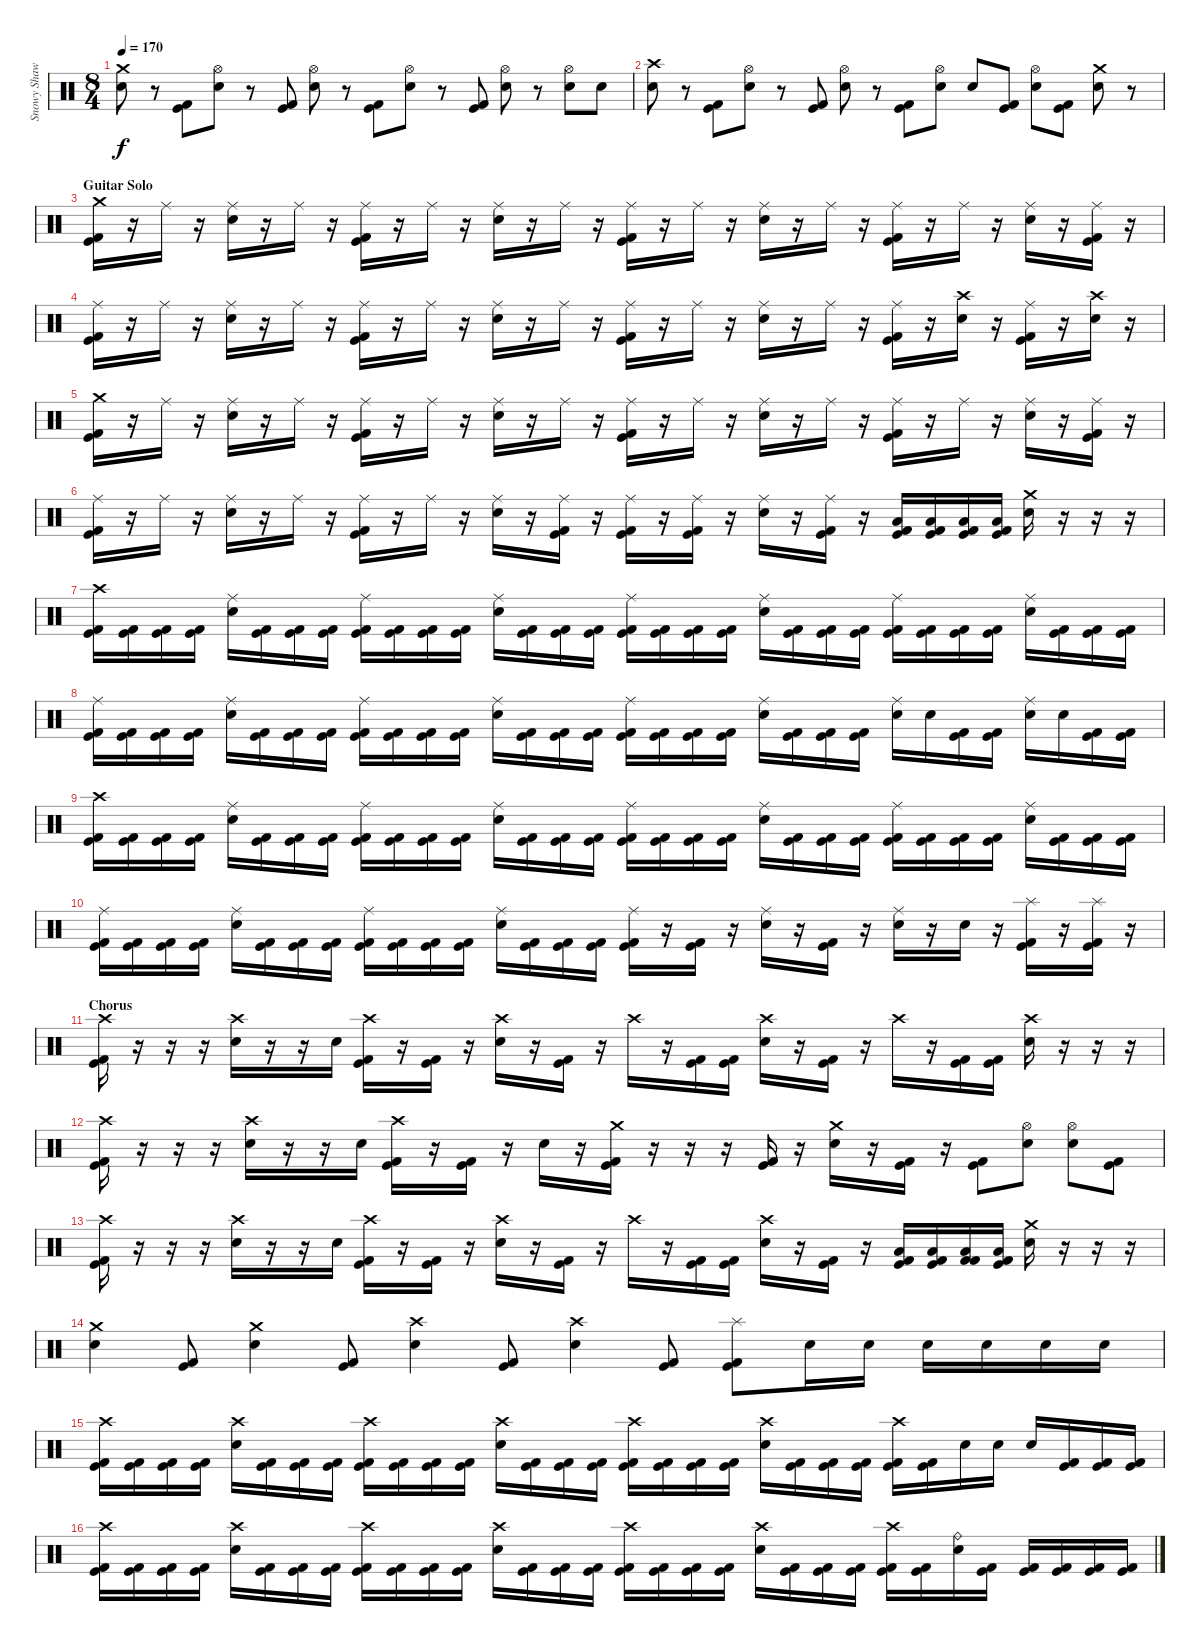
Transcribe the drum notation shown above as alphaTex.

\track ("Snowy Shaw" "Snowy Shaw") {instrument percussion}
\staff {score}
\articulation defaults
\ts (8 4)
\tempo 170
\clef neutral
\ks c
("Crash medium (hit)" "Electric Snare (hit)").8{dy f} r.8 ("Kick (hit)" "Kick (hit) 2").8 ("Hi-Hat (open)" "Electric Snare (hit)").8 r.8 ("Kick (hit)" "Kick (hit) 2").8 ("Hi-Hat (open)" "Electric Snare (hit)").8 r.8 ("Kick (hit)" "Kick (hit) 2").8 ("Hi-Hat (open)" "Electric Snare (hit)").8 r.8 ("Kick (hit)" "Kick (hit) 2").8 ("Hi-Hat (open)" "Electric Snare (hit)").8 r.8 ("Hi-Hat (open)" "Electric Snare (hit)").8 "Electric Snare (hit)".8 |
("Crash high (hit)" "Electric Snare (hit)").8 r.8 ("Kick (hit)" "Kick (hit) 2").8 ("Hi-Hat (open)" "Electric Snare (hit)").8 r.8 ("Kick (hit)" "Kick (hit) 2").8 ("Hi-Hat (open)" "Electric Snare (hit)").8 r.8 ("Kick (hit)" "Kick (hit) 2").8 ("Hi-Hat (open)" "Electric Snare (hit)").8 "Electric Snare (hit)".8 ("Kick (hit)" "Kick (hit) 2").8 ("Hi-Hat (open)" "Electric Snare (hit)").8 ("Kick (hit)" "Kick (hit) 2").8 ("Crash medium (hit)" "Electric Snare (hit)").8 r.8 |
\section ("" "Guitar Solo")
("Crash medium (hit)" "Kick (hit)" "Kick (hit) 2").16 r.16 "Ride (middle)".16 r.16 ("Ride (middle)" "Electric Snare (hit)").16 r.16 "Ride (middle)".16 r.16 ("Ride (middle)" "Kick (hit)" "Kick (hit) 2").16 r.16 "Ride (middle)".16 r.16 ("Ride (middle)" "Electric Snare (hit)").16 r.16 "Ride (middle)".16 r.16 ("Ride (middle)" "Kick (hit)" "Kick (hit) 2").16 r.16 "Ride (middle)".16 r.16 ("Ride (middle)" "Electric Snare (hit)").16 r.16 "Ride (middle)".16 r.16 ("Ride (middle)" "Kick (hit)" "Kick (hit) 2").16 r.16 "Ride (middle)".16 r.16 ("Ride (middle)" "Electric Snare (hit)").16 r.16 ("Ride (middle)" "Kick (hit)" "Kick (hit) 2").16 r.16 |
("Ride (middle)" "Kick (hit)" "Kick (hit) 2").16 r.16 "Ride (middle)".16 r.16 ("Ride (middle)" "Electric Snare (hit)").16 r.16 "Ride (middle)".16 r.16 ("Ride (middle)" "Kick (hit)" "Kick (hit) 2").16 r.16 "Ride (middle)".16 r.16 ("Ride (middle)" "Electric Snare (hit)").16 r.16 "Ride (middle)".16 r.16 ("Ride (middle)" "Kick (hit)" "Kick (hit) 2").16 r.16 "Ride (middle)".16 r.16 ("Ride (middle)" "Electric Snare (hit)").16 r.16 "Ride (middle)".16 r.16 ("Ride (middle)" "Kick (hit)" "Kick (hit) 2").16 r.16 ("Crash high (hit)" "Electric Snare (hit)").16 r.16 ("Ride (middle)" "Kick (hit)" "Kick (hit) 2").16 r.16 ("Crash high (hit)" "Electric Snare (hit)").16 r.16 |
("Crash medium (hit)" "Kick (hit)" "Kick (hit) 2").16 r.16 "Ride (middle)".16 r.16 ("Ride (middle)" "Electric Snare (hit)").16 r.16 "Ride (middle)".16 r.16 ("Ride (middle)" "Kick (hit)" "Kick (hit) 2").16 r.16 "Ride (middle)".16 r.16 ("Ride (middle)" "Electric Snare (hit)").16 r.16 "Ride (middle)".16 r.16 ("Ride (middle)" "Kick (hit)" "Kick (hit) 2").16 r.16 "Ride (middle)".16 r.16 ("Ride (middle)" "Electric Snare (hit)").16 r.16 "Ride (middle)".16 r.16 ("Ride (middle)" "Kick (hit)" "Kick (hit) 2").16 r.16 "Ride (middle)".16 r.16 ("Ride (middle)" "Electric Snare (hit)").16 r.16 ("Ride (middle)" "Kick (hit)" "Kick (hit) 2").16 r.16 |
("Ride (middle)" "Kick (hit)" "Kick (hit) 2").16 r.16 "Ride (middle)".16 r.16 ("Ride (middle)" "Electric Snare (hit)").16 r.16 "Ride (middle)".16 r.16 ("Ride (middle)" "Kick (hit)" "Kick (hit) 2").16 r.16 "Ride (middle)".16 r.16 ("Ride (middle)" "Electric Snare (hit)").16 r.16 ("Ride (middle)" "Kick (hit)" "Kick (hit) 2").16 r.16 ("Ride (middle)" "Kick (hit)" "Kick (hit) 2").16 r.16 ("Ride (middle)" "Kick (hit)" "Kick (hit) 2").16 r.16 ("Ride (middle)" "Electric Snare (hit)").16 r.16 ("Ride (middle)" "Kick (hit)" "Kick (hit) 2").16 r.16 ("Low Tom (hit)" "Kick (hit)" "Kick (hit) 2").16 ("Low Tom (hit)" "Kick (hit)" "Kick (hit) 2").16 ("Low Tom (hit)" "Kick (hit)" "Kick (hit) 2").16 ("Low Tom (hit)" "Kick (hit)" "Kick (hit) 2").16 ("Crash medium (hit)" "Electric Snare (hit)").16 r.16 r.16 r.16 |
("Crash high (hit)" "Kick (hit)" "Kick (hit) 2").16 ("Kick (hit)" "Kick (hit) 2").16 ("Kick (hit)" "Kick (hit) 2").16 ("Kick (hit)" "Kick (hit) 2").16 ("Ride (middle)" "Electric Snare (hit)").16 ("Kick (hit)" "Kick (hit) 2").16 ("Kick (hit)" "Kick (hit) 2").16 ("Kick (hit)" "Kick (hit) 2").16 ("Ride (middle)" "Kick (hit)" "Kick (hit) 2").16 ("Kick (hit)" "Kick (hit) 2").16 ("Kick (hit)" "Kick (hit) 2").16 ("Kick (hit)" "Kick (hit) 2").16 ("Ride (middle)" "Electric Snare (hit)").16 ("Kick (hit)" "Kick (hit) 2").16 ("Kick (hit)" "Kick (hit) 2").16 ("Kick (hit)" "Kick (hit) 2").16 ("Ride (middle)" "Kick (hit)" "Kick (hit) 2").16 ("Kick (hit)" "Kick (hit) 2").16 ("Kick (hit)" "Kick (hit) 2").16 ("Kick (hit)" "Kick (hit) 2").16 ("Ride (middle)" "Electric Snare (hit)").16 ("Kick (hit)" "Kick (hit) 2").16 ("Kick (hit)" "Kick (hit) 2").16 ("Kick (hit)" "Kick (hit) 2").16 ("Ride (middle)" "Kick (hit)" "Kick (hit) 2").16 ("Kick (hit)" "Kick (hit) 2").16 ("Kick (hit)" "Kick (hit) 2").16 ("Kick (hit)" "Kick (hit) 2").16 ("Ride (middle)" "Electric Snare (hit)").16 ("Kick (hit)" "Kick (hit) 2").16 ("Kick (hit)" "Kick (hit) 2").16 ("Kick (hit)" "Kick (hit) 2").16 |
("Ride (middle)" "Kick (hit)" "Kick (hit) 2").16 ("Kick (hit)" "Kick (hit) 2").16 ("Kick (hit)" "Kick (hit) 2").16 ("Kick (hit)" "Kick (hit) 2").16 ("Ride (middle)" "Electric Snare (hit)").16 ("Kick (hit)" "Kick (hit) 2").16 ("Kick (hit)" "Kick (hit) 2").16 ("Kick (hit)" "Kick (hit) 2").16 ("Ride (middle)" "Kick (hit)" "Kick (hit) 2").16 ("Kick (hit)" "Kick (hit) 2").16 ("Kick (hit)" "Kick (hit) 2").16 ("Kick (hit)" "Kick (hit) 2").16 ("Ride (middle)" "Electric Snare (hit)").16 ("Kick (hit)" "Kick (hit) 2").16 ("Kick (hit)" "Kick (hit) 2").16 ("Kick (hit)" "Kick (hit) 2").16 ("Ride (middle)" "Kick (hit)" "Kick (hit) 2").16 ("Kick (hit)" "Kick (hit) 2").16 ("Kick (hit)" "Kick (hit) 2").16 ("Kick (hit)" "Kick (hit) 2").16 ("Ride (middle)" "Electric Snare (hit)").16 ("Kick (hit)" "Kick (hit) 2").16 ("Kick (hit)" "Kick (hit) 2").16 ("Kick (hit)" "Kick (hit) 2").16 ("Ride (middle)" "Electric Snare (hit)").16 "Electric Snare (hit)".16 ("Kick (hit)" "Kick (hit) 2").16 ("Kick (hit)" "Kick (hit) 2").16 ("Ride (middle)" "Electric Snare (hit)").16 "Electric Snare (hit)".16 ("Kick (hit)" "Kick (hit) 2").16 ("Kick (hit)" "Kick (hit) 2").16 |
("Crash high (hit)" "Kick (hit)" "Kick (hit) 2").16 ("Kick (hit)" "Kick (hit) 2").16 ("Kick (hit)" "Kick (hit) 2").16 ("Kick (hit)" "Kick (hit) 2").16 ("Ride (middle)" "Electric Snare (hit)").16 ("Kick (hit)" "Kick (hit) 2").16 ("Kick (hit)" "Kick (hit) 2").16 ("Kick (hit)" "Kick (hit) 2").16 ("Ride (middle)" "Kick (hit)" "Kick (hit) 2").16 ("Kick (hit)" "Kick (hit) 2").16 ("Kick (hit)" "Kick (hit) 2").16 ("Kick (hit)" "Kick (hit) 2").16 ("Ride (middle)" "Electric Snare (hit)").16 ("Kick (hit)" "Kick (hit) 2").16 ("Kick (hit)" "Kick (hit) 2").16 ("Kick (hit)" "Kick (hit) 2").16 ("Ride (middle)" "Kick (hit)" "Kick (hit) 2").16 ("Kick (hit)" "Kick (hit) 2").16 ("Kick (hit)" "Kick (hit) 2").16 ("Kick (hit)" "Kick (hit) 2").16 ("Ride (middle)" "Electric Snare (hit)").16 ("Kick (hit)" "Kick (hit) 2").16 ("Kick (hit)" "Kick (hit) 2").16 ("Kick (hit)" "Kick (hit) 2").16 ("Ride (middle)" "Kick (hit)" "Kick (hit) 2").16 ("Kick (hit)" "Kick (hit) 2").16 ("Kick (hit)" "Kick (hit) 2").16 ("Kick (hit)" "Kick (hit) 2").16 ("Ride (middle)" "Electric Snare (hit)").16 ("Kick (hit)" "Kick (hit) 2").16 ("Kick (hit)" "Kick (hit) 2").16 ("Kick (hit)" "Kick (hit) 2").16 |
("Ride (middle)" "Kick (hit)" "Kick (hit) 2").16 ("Kick (hit)" "Kick (hit) 2").16 ("Kick (hit)" "Kick (hit) 2").16 ("Kick (hit)" "Kick (hit) 2").16 ("Ride (middle)" "Electric Snare (hit)").16 ("Kick (hit)" "Kick (hit) 2").16 ("Kick (hit)" "Kick (hit) 2").16 ("Kick (hit)" "Kick (hit) 2").16 ("Ride (middle)" "Kick (hit)" "Kick (hit) 2").16 ("Kick (hit)" "Kick (hit) 2").16 ("Kick (hit)" "Kick (hit) 2").16 ("Kick (hit)" "Kick (hit) 2").16 ("Ride (middle)" "Electric Snare (hit)").16 ("Kick (hit)" "Kick (hit) 2").16 ("Kick (hit)" "Kick (hit) 2").16 ("Kick (hit)" "Kick (hit) 2").16 ("Ride (middle)" "Kick (hit)" "Kick (hit) 2").16 r.16 ("Kick (hit)" "Kick (hit) 2").16 r.16 ("Ride (middle)" "Electric Snare (hit)").16 r.16 ("Kick (hit)" "Kick (hit) 2").16 r.16 ("Ride (middle)" "Electric Snare (hit)").16 r.16 "Electric Snare (hit)".16 r.16 ("Splash (hit)" "Kick (hit)" "Kick (hit) 2").16 r.16 ("Splash (hit)" "Kick (hit)" "Kick (hit) 2").16 r.16 |
\section ("" "Chorus")
("Crash high (hit)" "Kick (hit)" "Kick (hit) 2").16 r.16 r.16 r.16 ("Crash high (hit)" "Electric Snare (hit)").16 r.16 r.16 "Electric Snare (hit)".16 ("Crash high (hit)" "Kick (hit)" "Kick (hit) 2").16 r.16 ("Kick (hit)" "Kick (hit) 2").16 r.16 ("Crash high (hit)" "Electric Snare (hit)").16 r.16 ("Kick (hit)" "Kick (hit) 2").16 r.16 "Crash high (hit)".16 r.16 ("Kick (hit) 2" "Kick (hit)").16 ("Kick (hit)" "Kick (hit) 2").16 ("Crash high (hit)" "Electric Snare (hit)").16 r.16 ("Kick (hit)" "Kick (hit) 2").16 r.16 "Crash high (hit)".16 r.16 ("Kick (hit) 2" "Kick (hit)").16 ("Kick (hit) 2" "Kick (hit)").16 ("Crash high (hit)" "Electric Snare (hit)").16 r.16 r.16 r.16 |
("Crash high (hit)" "Kick (hit)" "Kick (hit) 2").16 r.16 r.16 r.16 ("Crash high (hit)" "Electric Snare (hit)").16 r.16 r.16 "Electric Snare (hit)".16 ("Crash high (hit)" "Kick (hit)" "Kick (hit) 2").16 r.16 ("Kick (hit)" "Kick (hit) 2").16 r.16 "Electric Snare (hit)".16 r.16 ("Crash medium (hit)" "Kick (hit)" "Kick (hit) 2").16 r.16 r.16 r.16 ("Kick (hit) 2" "Kick (hit)").16 r.16 ("Crash medium (hit)" "Electric Snare (hit)").16 r.16 ("Kick (hit)" "Kick (hit) 2").16 r.16 ("Kick (hit)" "Kick (hit) 2").8 ("Hi-Hat (open)" "Electric Snare (hit)").8 ("Hi-Hat (open)" "Electric Snare (hit)").8 ("Kick (hit)" "Kick (hit) 2").8 |
("Crash high (hit)" "Kick (hit)" "Kick (hit) 2").16 r.16 r.16 r.16 ("Crash high (hit)" "Electric Snare (hit)").16 r.16 r.16 "Electric Snare (hit)".16 ("Crash high (hit)" "Kick (hit)" "Kick (hit) 2").16 r.16 ("Kick (hit)" "Kick (hit) 2").16 r.16 ("Crash high (hit)" "Electric Snare (hit)").16 r.16 ("Kick (hit)" "Kick (hit) 2").16 r.16 "Crash high (hit)".16 r.16 ("Kick (hit) 2" "Kick (hit)").16 ("Kick (hit)" "Kick (hit) 2").16 ("Crash high (hit)" "Electric Snare (hit)").16 r.16 ("Kick (hit)" "Kick (hit) 2").16 r.16 ("Low Tom (hit)" "Kick (hit)" "Kick (hit) 2").16 ("Low Tom (hit)" "Kick (hit)" "Kick (hit) 2").16 ("Low Tom (hit)" "Kick (hit) 2" "Kick (hit) 2").16 ("Low Tom (hit)" "Kick (hit)" "Kick (hit) 2").16 ("Crash medium (hit)" "Electric Snare (hit)").16 r.16 r.16 r.16 |
("Crash medium (hit)" "Electric Snare (hit)").4 ("Kick (hit)" "Kick (hit) 2").8 ("Crash medium (hit)" "Electric Snare (hit)").4 ("Kick (hit)" "Kick (hit) 2").8 ("Crash high (hit)" "Electric Snare (hit)").4 ("Kick (hit)" "Kick (hit) 2").8 ("Crash high (hit)" "Electric Snare (hit)").4 ("Kick (hit)" "Kick (hit) 2").8 ("Splash (hit)" "Kick (hit)" "Kick (hit) 2").8 "Electric Snare (hit)".16 "Electric Snare (hit)".16 "Electric Snare (hit)".16 "Electric Snare (hit)".16 "Electric Snare (hit)".16 "Electric Snare (hit)".16 |
("Crash high (hit)" "Kick (hit)" "Kick (hit) 2").16 ("Kick (hit)" "Kick (hit) 2").16 ("Kick (hit)" "Kick (hit) 2").16 ("Kick (hit)" "Kick (hit) 2").16 ("Crash high (hit)" "Electric Snare (hit)").16 ("Kick (hit)" "Kick (hit) 2").16 ("Kick (hit)" "Kick (hit) 2").16 ("Kick (hit)" "Kick (hit) 2").16 ("Crash high (hit)" "Kick (hit)" "Kick (hit) 2").16 ("Kick (hit)" "Kick (hit) 2").16 ("Kick (hit)" "Kick (hit) 2").16 ("Kick (hit)" "Kick (hit) 2").16 ("Crash high (hit)" "Electric Snare (hit)").16 ("Kick (hit)" "Kick (hit) 2").16 ("Kick (hit)" "Kick (hit) 2").16 ("Kick (hit)" "Kick (hit) 2").16 ("Crash high (hit)" "Kick (hit)" "Kick (hit) 2").16 ("Kick (hit)" "Kick (hit) 2").16 ("Kick (hit)" "Kick (hit) 2").16 ("Kick (hit)" "Kick (hit) 2").16 ("Crash high (hit)" "Electric Snare (hit)").16 ("Kick (hit)" "Kick (hit) 2").16 ("Kick (hit)" "Kick (hit) 2").16 ("Kick (hit)" "Kick (hit) 2").16 ("Crash high (hit)" "Kick (hit)" "Kick (hit) 2").16 ("Kick (hit)" "Kick (hit) 2").16 "Electric Snare (hit)".16 "Electric Snare (hit)".16 "Electric Snare (hit)".16 ("Kick (hit)" "Kick (hit) 2").16 ("Kick (hit)" "Kick (hit) 2").16 ("Kick (hit)" "Kick (hit) 2").16 |
("Crash high (hit)" "Kick (hit)" "Kick (hit) 2").16 ("Kick (hit)" "Kick (hit) 2").16 ("Kick (hit)" "Kick (hit) 2").16 ("Kick (hit)" "Kick (hit) 2").16 ("Crash high (hit)" "Electric Snare (hit)").16 ("Kick (hit)" "Kick (hit) 2").16 ("Kick (hit)" "Kick (hit) 2").16 ("Kick (hit)" "Kick (hit) 2").16 ("Crash high (hit)" "Kick (hit)" "Kick (hit) 2").16 ("Kick (hit)" "Kick (hit) 2").16 ("Kick (hit)" "Kick (hit) 2").16 ("Kick (hit)" "Kick (hit) 2").16 ("Crash high (hit)" "Electric Snare (hit)").16 ("Kick (hit)" "Kick (hit) 2").16 ("Kick (hit)" "Kick (hit) 2").16 ("Kick (hit)" "Kick (hit) 2").16 ("Crash high (hit)" "Kick (hit)" "Kick (hit) 2").16 ("Kick (hit)" "Kick (hit) 2").16 ("Kick (hit)" "Kick (hit) 2").16 ("Kick (hit)" "Kick (hit) 2").16 ("Crash high (hit)" "Electric Snare (hit)").16 ("Kick (hit)" "Kick (hit) 2").16 ("Kick (hit)" "Kick (hit) 2").16 ("Kick (hit)" "Kick (hit) 2").16 ("Crash high (hit)" "Kick (hit)" "Kick (hit) 2").16 ("Kick (hit)" "Kick (hit) 2").16 ("Ride (bell)" "Electric Snare (hit)").16 ("Kick (hit)" "Kick (hit) 2").16 ("Kick (hit) 2" "Kick (hit)").16 ("Kick (hit)" "Kick (hit) 2").16 ("Kick (hit)" "Kick (hit) 2").16 ("Kick (hit)" "Kick (hit) 2").16
